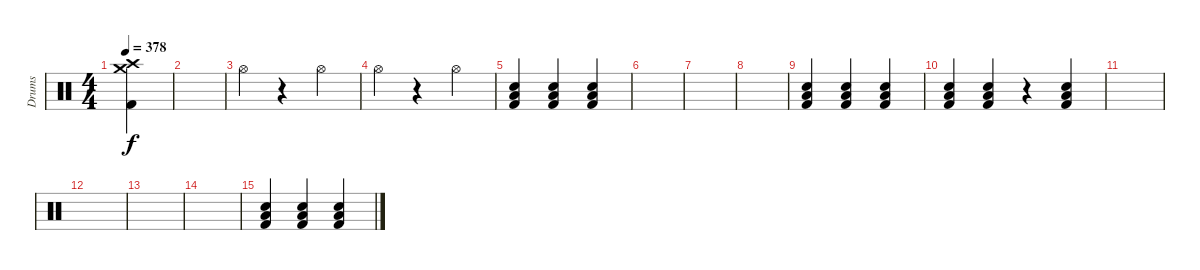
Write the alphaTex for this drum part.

\track ("Drums" "Drums") {instrument percussion}
\staff {score}
\articulation defaults
\ts (4 4)
\tempo 378
\clef neutral
\ks c
("Crash medium (hit)" "Crash high (hit)" "Kick (hit) 2").4{dy f} |
|
"Hi-Hat (open)".4 r.4 "Hi-Hat (open)".4 |
"Hi-Hat (open)".4 r.4 "Hi-Hat (open)".4 |
("Low Floor Tom (hit)" "Kick (hit) 2" "Electric Snare (hit)").4 ("Low Floor Tom (hit)" "Kick (hit) 2" "Electric Snare (hit)").4 ("Low Floor Tom (hit)" "Kick (hit) 2" "Electric Snare (hit)").4 |
|
|
|
("Low Floor Tom (hit)" "Kick (hit) 2" "Electric Snare (hit)").4 ("Low Floor Tom (hit)" "Kick (hit) 2" "Electric Snare (hit)").4 ("Low Floor Tom (hit)" "Kick (hit) 2" "Electric Snare (hit)").4 |
("Low Floor Tom (hit)" "Kick (hit) 2" "Electric Snare (hit)").4 ("Low Floor Tom (hit)" "Kick (hit) 2" "Electric Snare (hit)").4 r.4 ("Low Floor Tom (hit)" "Kick (hit) 2" "Electric Snare (hit)").4 |
|
|
|
|
("Low Floor Tom (hit)" "Kick (hit) 2" "Electric Snare (hit)").4 ("Low Floor Tom (hit)" "Kick (hit) 2" "Electric Snare (hit)").4 ("Low Floor Tom (hit)" "Kick (hit) 2" "Electric Snare (hit)").4
